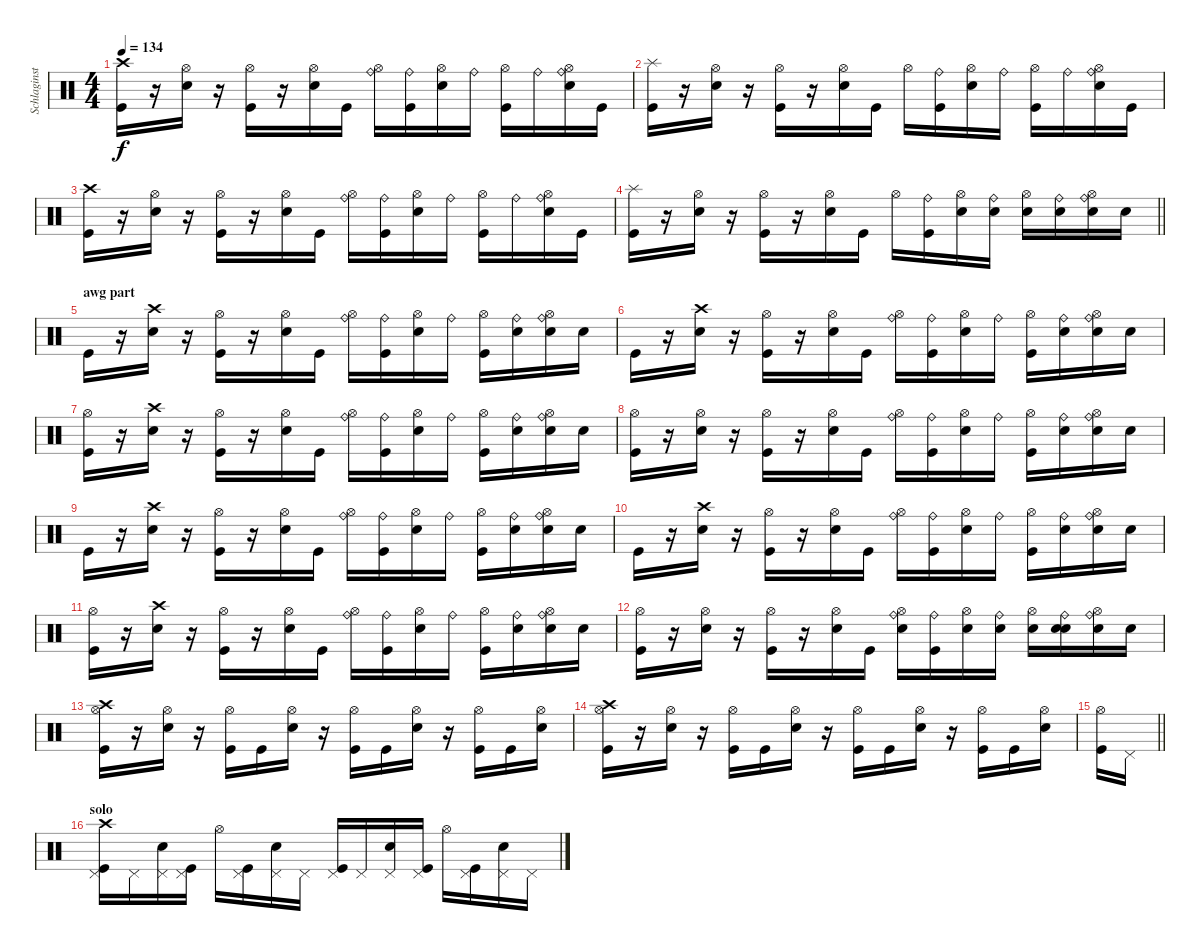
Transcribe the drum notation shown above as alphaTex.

\track ("Schlaginstrumente - Auswahl" "Schlaginst") {instrument percussion}
\staff {score}
\articulation defaults
\ts (4 4)
\tempo 134
\clef neutral
\ks c
("Crash high (hit)" "Kick (hit)").16{dy f} r.16 ("Hi-Hat (open)" "Snare (hit) 2").16 r.16 ("Hi-Hat (open)" "Kick (hit)").16 r.16 ("Hi-Hat (open)" "Snare (hit) 2").16 "Kick (hit)".16 ("Hi-Hat (open)" "Ride (bell)").16 ("Kick (hit)" "Ride (bell)").16 ("Hi-Hat (open)" "Snare (hit) 2").16 "Ride (bell)".16 ("Hi-Hat (open)" "Kick (hit)").16 "Ride (bell)".16 ("Hi-Hat (open)" "Snare (hit) 2" "Ride (bell)").16 "Kick (hit)".16 |
("Splash (hit)" "Kick (hit)").16 r.16 ("Hi-Hat (open)" "Snare (hit) 2").16 r.16 ("Hi-Hat (open)" "Kick (hit)").16 r.16 ("Hi-Hat (open)" "Snare (hit) 2").16 "Kick (hit)".16 "Hi-Hat (open)".16 ("Kick (hit)" "Ride (bell)").16 ("Hi-Hat (open)" "Snare (hit) 2").16 "Ride (bell)".16 ("Hi-Hat (open)" "Kick (hit)").16 "Ride (bell)".16 ("Hi-Hat (open)" "Snare (hit) 2" "Ride (bell)").16 "Kick (hit)".16 |
("Crash high (hit)" "Kick (hit)").16 r.16 ("Hi-Hat (open)" "Snare (hit) 2").16 r.16 ("Hi-Hat (open)" "Kick (hit)").16 r.16 ("Hi-Hat (open)" "Snare (hit) 2").16 "Kick (hit)".16 ("Hi-Hat (open)" "Ride (bell)").16 ("Kick (hit)" "Ride (bell)").16 ("Hi-Hat (open)" "Snare (hit) 2").16 "Ride (bell)".16 ("Hi-Hat (open)" "Kick (hit)").16 "Ride (bell)".16 ("Hi-Hat (open)" "Snare (hit) 2" "Ride (bell)").16 "Kick (hit)".16 |
\barLineRight lightlight
("Splash (hit)" "Kick (hit)").16 r.16 ("Hi-Hat (open)" "Snare (hit) 2").16 r.16 ("Hi-Hat (open)" "Kick (hit)").16 r.16 ("Hi-Hat (open)" "Snare (hit) 2").16 "Kick (hit)".16 "Hi-Hat (open)".16 ("Kick (hit)" "Ride (bell)").16 ("Hi-Hat (open)" "Snare (hit) 2").16 ("Snare (hit) 2" "Ride (bell)").16 ("Hi-Hat (open)" "Snare (hit) 2").16 ("Snare (hit) 2" "Ride (bell)").16 ("Hi-Hat (open)" "Snare (hit) 2" "Ride (bell)").16 "Snare (hit) 2".16 |
\section ("" "awg part")
"Kick (hit)".16 r.16 ("Crash high (hit)" "Snare (hit) 2").16 r.16 ("Hi-Hat (open)" "Kick (hit)").16 r.16 ("Hi-Hat (open)" "Snare (hit) 2").16 "Kick (hit)".16 ("Hi-Hat (open)" "Ride (bell)").16 ("Kick (hit)" "Ride (bell)").16 ("Hi-Hat (open)" "Snare (hit) 2").16 "Ride (bell)".16 ("Hi-Hat (open)" "Kick (hit)").16 ("Snare (hit) 2" "Ride (bell)").16 ("Hi-Hat (open)" "Snare (hit) 2" "Ride (bell)").16 "Snare (hit) 2".16 |
"Kick (hit)".16 r.16 ("Crash high (hit)" "Snare (hit) 2").16 r.16 ("Hi-Hat (open)" "Kick (hit)").16 r.16 ("Hi-Hat (open)" "Snare (hit) 2").16 "Kick (hit)".16 ("Hi-Hat (open)" "Ride (bell)").16 ("Kick (hit)" "Ride (bell)").16 ("Hi-Hat (open)" "Snare (hit) 2").16 "Ride (bell)".16 ("Hi-Hat (open)" "Kick (hit)").16 ("Snare (hit) 2" "Ride (bell)").16 ("Hi-Hat (open)" "Snare (hit) 2" "Ride (bell)").16 "Snare (hit) 2".16 |
("Hi-Hat (open)" "Kick (hit)").16 r.16 ("Crash high (hit)" "Snare (hit) 2").16 r.16 ("Hi-Hat (open)" "Kick (hit)").16 r.16 ("Hi-Hat (open)" "Snare (hit) 2").16 "Kick (hit)".16 ("Hi-Hat (open)" "Ride (bell)").16 ("Kick (hit)" "Ride (bell)").16 ("Hi-Hat (open)" "Snare (hit) 2").16 "Ride (bell)".16 ("Hi-Hat (open)" "Kick (hit)").16 ("Snare (hit) 2" "Ride (bell)").16 ("Hi-Hat (open)" "Snare (hit) 2" "Ride (bell)").16 "Snare (hit) 2".16 |
("Hi-Hat (open)" "Kick (hit)").16 r.16 ("Hi-Hat (open)" "Snare (hit) 2").16 r.16 ("Hi-Hat (open)" "Kick (hit)").16 r.16 ("Hi-Hat (open)" "Snare (hit) 2").16 "Kick (hit)".16 ("Hi-Hat (open)" "Ride (bell)").16 ("Kick (hit)" "Ride (bell)").16 ("Hi-Hat (open)" "Snare (hit) 2").16 "Ride (bell)".16 ("Hi-Hat (open)" "Kick (hit)").16 ("Snare (hit) 2" "Ride (bell)").16 ("Hi-Hat (open)" "Snare (hit) 2" "Ride (bell)").16 "Snare (hit) 2".16 |
"Kick (hit)".16 r.16 ("Crash high (hit)" "Snare (hit) 2").16 r.16 ("Hi-Hat (open)" "Kick (hit)").16 r.16 ("Hi-Hat (open)" "Snare (hit) 2").16 "Kick (hit)".16 ("Hi-Hat (open)" "Ride (bell)").16 ("Kick (hit)" "Ride (bell)").16 ("Hi-Hat (open)" "Snare (hit) 2").16 "Ride (bell)".16 ("Hi-Hat (open)" "Kick (hit)").16 ("Snare (hit) 2" "Ride (bell)").16 ("Hi-Hat (open)" "Snare (hit) 2" "Ride (bell)").16 "Snare (hit) 2".16 |
"Kick (hit)".16 r.16 ("Crash high (hit)" "Snare (hit) 2").16 r.16 ("Hi-Hat (open)" "Kick (hit)").16 r.16 ("Hi-Hat (open)" "Snare (hit) 2").16 "Kick (hit)".16 ("Hi-Hat (open)" "Ride (bell)").16 ("Kick (hit)" "Ride (bell)").16 ("Hi-Hat (open)" "Snare (hit) 2").16 "Ride (bell)".16 ("Hi-Hat (open)" "Kick (hit)").16 ("Snare (hit) 2" "Ride (bell)").16 ("Hi-Hat (open)" "Snare (hit) 2" "Ride (bell)").16 "Snare (hit) 2".16 |
("Hi-Hat (open)" "Kick (hit)").16 r.16 ("Crash high (hit)" "Snare (hit) 2").16 r.16 ("Hi-Hat (open)" "Kick (hit)").16 r.16 ("Hi-Hat (open)" "Snare (hit) 2").16 "Kick (hit)".16 ("Hi-Hat (open)" "Ride (bell)").16 ("Kick (hit)" "Ride (bell)").16 ("Hi-Hat (open)" "Snare (hit) 2").16 "Ride (bell)".16 ("Hi-Hat (open)" "Kick (hit)").16 ("Snare (hit) 2" "Ride (bell)").16 ("Hi-Hat (open)" "Snare (hit) 2" "Ride (bell)").16 "Snare (hit) 2".16 |
("Hi-Hat (open)" "Kick (hit)").16 r.16 ("Hi-Hat (open)" "Snare (hit) 2").16 r.16 ("Hi-Hat (open)" "Kick (hit)").16 r.16 ("Hi-Hat (open)" "Snare (hit) 2").16 "Kick (hit)".16 ("Hi-Hat (open)" "Snare (hit) 2" "Ride (bell)").16 ("Kick (hit)" "Ride (bell)").16 ("Hi-Hat (open)" "Snare (hit) 2").16 ("Snare (hit) 2" "Ride (bell)").16 ("Hi-Hat (open)" "Snare (hit) 2").16 ("Snare (hit) 2" "Snare (hit) 2" "Ride (bell)").16 ("Hi-Hat (open)" "Snare (hit) 2" "Ride (bell)").16 "Snare (hit) 2".16 |
("Hi-Hat (open)" "Crash high (hit)" "Kick (hit)").16 r.16 ("Hi-Hat (open)" "Snare (hit) 2").16 r.16 ("Hi-Hat (open)" "Kick (hit)").16 "Kick (hit)".16 ("Hi-Hat (open)" "Snare (hit) 2").16 r.16 ("Hi-Hat (open)" "Kick (hit)").16 "Kick (hit)".16 ("Hi-Hat (open)" "Snare (hit) 2").16 r.16 ("Hi-Hat (open)" "Kick (hit)").16 "Kick (hit)".16 ("Hi-Hat (open)" "Snare (hit) 2").16 |
("Hi-Hat (open)" "Crash high (hit)" "Kick (hit)").16 r.16 ("Hi-Hat (open)" "Snare (hit) 2").16 r.16 ("Hi-Hat (open)" "Kick (hit)").16 "Kick (hit)".16 ("Hi-Hat (open)" "Snare (hit) 2").16 r.16 ("Hi-Hat (open)" "Kick (hit)").16 "Kick (hit)".16 ("Hi-Hat (open)" "Snare (hit) 2").16 r.16 ("Hi-Hat (open)" "Kick (hit)").16 "Kick (hit)".16 ("Hi-Hat (open)" "Snare (hit) 2").16 |
\barLineRight lightlight
("Hi-Hat (open)" "Kick (hit)").16 "Pedal Hi-Hat (hit)".16 |
\section ("" "solo")
("Pedal Hi-Hat (hit)" "Crash high (hit)" "Kick (hit)").16 "Pedal Hi-Hat (hit)".16 ("Pedal Hi-Hat (hit)" "Snare (hit) 2").16 ("Pedal Hi-Hat (hit)" "Kick (hit)").16 "Hi-Hat (open)".16 ("Pedal Hi-Hat (hit)" "Kick (hit)").16 ("Pedal Hi-Hat (hit)" "Snare (hit) 2").16 "Pedal Hi-Hat (hit)".16 ("Pedal Hi-Hat (hit)" "Kick (hit)").16 "Pedal Hi-Hat (hit)".16 ("Pedal Hi-Hat (hit)" "Snare (hit) 2").16 ("Pedal Hi-Hat (hit)" "Kick (hit)").16 "Hi-Hat (open)".16 ("Pedal Hi-Hat (hit)" "Kick (hit)").16 ("Pedal Hi-Hat (hit)" "Snare (hit) 2").16 "Pedal Hi-Hat (hit)".16
